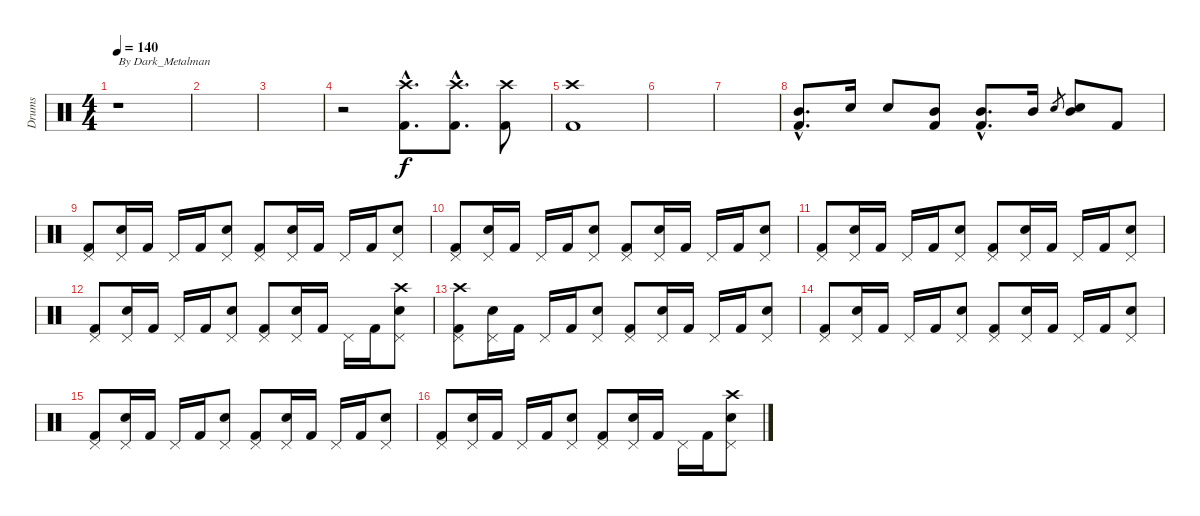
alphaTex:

\track ("Drums" "Drums") {instrument percussion}
\staff {score}
\articulation defaults
\ts (4 4)
\tempo 140
\clef neutral
\ks c
r.1{txt "By Dark_Metalman" dy f} |
|
|
r.2 ("Crash high (hit)"{hac} "Kick (hit) 2"{hac}).8{d} ("Crash high (hit)"{hac} "Kick (hit) 2"{hac}).8{d} ("Crash high (hit)" "Kick (hit) 2").8 |
("Crash high (hit)" "Kick (hit) 2").1 |
|
|
("Mid Tom (hit)"{hac} "Kick (hit) 2"{hac}).8{d} "Electric Snare (hit)".16 "Electric Snare (hit)".8 ("Mid Tom (hit)" "Kick (hit) 2").8 ("Mid Tom (hit)"{hac} "Kick (hit) 2"{hac}).8{d} "Mid Tom (hit)".16 "Electric Snare (hit)".8{gr} ("Electric Snare (hit)" "Mid Tom (hit)").8 "Kick (hit) 2".8 |
("Pedal Hi-Hat (hit)" "Kick (hit) 2").8 ("Pedal Hi-Hat (hit)" "Electric Snare (hit)").16 "Kick (hit) 2".16 "Pedal Hi-Hat (hit)".16 "Kick (hit) 2".16 ("Pedal Hi-Hat (hit)" "Electric Snare (hit)").8 ("Pedal Hi-Hat (hit)" "Kick (hit) 2").8 ("Pedal Hi-Hat (hit)" "Electric Snare (hit)").16 "Kick (hit) 2".16 "Pedal Hi-Hat (hit)".16 "Kick (hit) 2".16 ("Pedal Hi-Hat (hit)" "Electric Snare (hit)").8 |
("Pedal Hi-Hat (hit)" "Kick (hit) 2").8 ("Pedal Hi-Hat (hit)" "Electric Snare (hit)").16 "Kick (hit) 2".16 "Pedal Hi-Hat (hit)".16 "Kick (hit) 2".16 ("Pedal Hi-Hat (hit)" "Electric Snare (hit)").8 ("Pedal Hi-Hat (hit)" "Kick (hit) 2").8 ("Pedal Hi-Hat (hit)" "Electric Snare (hit)").16 "Kick (hit) 2".16 "Pedal Hi-Hat (hit)".16 "Kick (hit) 2".16 ("Pedal Hi-Hat (hit)" "Electric Snare (hit)").8 |
("Pedal Hi-Hat (hit)" "Kick (hit) 2").8 ("Pedal Hi-Hat (hit)" "Electric Snare (hit)").16 "Kick (hit) 2".16 "Pedal Hi-Hat (hit)".16 "Kick (hit) 2".16 ("Pedal Hi-Hat (hit)" "Electric Snare (hit)").8 ("Pedal Hi-Hat (hit)" "Kick (hit) 2").8 ("Pedal Hi-Hat (hit)" "Electric Snare (hit)").16 "Kick (hit) 2".16 "Pedal Hi-Hat (hit)".16 "Kick (hit) 2".16 ("Pedal Hi-Hat (hit)" "Electric Snare (hit)").8 |
("Pedal Hi-Hat (hit)" "Kick (hit) 2").8 ("Pedal Hi-Hat (hit)" "Electric Snare (hit)").16 "Kick (hit) 2".16 "Pedal Hi-Hat (hit)".16 "Kick (hit) 2".16 ("Pedal Hi-Hat (hit)" "Electric Snare (hit)").8 ("Pedal Hi-Hat (hit)" "Kick (hit) 2").8 ("Pedal Hi-Hat (hit)" "Electric Snare (hit)").16 "Kick (hit) 2".16 "Pedal Hi-Hat (hit)".16 "Kick (hit) 2".16 ("Pedal Hi-Hat (hit)" "Electric Snare (hit)" "Crash high (hit)").8 |
("Pedal Hi-Hat (hit)" "Crash high (hit)" "Kick (hit) 2").8 ("Pedal Hi-Hat (hit)" "Electric Snare (hit)").16 "Kick (hit) 2".16 "Pedal Hi-Hat (hit)".16 "Kick (hit) 2".16 ("Pedal Hi-Hat (hit)" "Electric Snare (hit)").8 ("Pedal Hi-Hat (hit)" "Kick (hit) 2").8 ("Pedal Hi-Hat (hit)" "Electric Snare (hit)").16 "Kick (hit) 2".16 "Pedal Hi-Hat (hit)".16 "Kick (hit) 2".16 ("Pedal Hi-Hat (hit)" "Electric Snare (hit)").8 |
("Pedal Hi-Hat (hit)" "Kick (hit) 2").8 ("Pedal Hi-Hat (hit)" "Electric Snare (hit)").16 "Kick (hit) 2".16 "Pedal Hi-Hat (hit)".16 "Kick (hit) 2".16 ("Pedal Hi-Hat (hit)" "Electric Snare (hit)").8 ("Pedal Hi-Hat (hit)" "Kick (hit) 2").8 ("Pedal Hi-Hat (hit)" "Electric Snare (hit)").16 "Kick (hit) 2".16 "Pedal Hi-Hat (hit)".16 "Kick (hit) 2".16 ("Pedal Hi-Hat (hit)" "Electric Snare (hit)").8 |
("Pedal Hi-Hat (hit)" "Kick (hit) 2").8 ("Pedal Hi-Hat (hit)" "Electric Snare (hit)").16 "Kick (hit) 2".16 "Pedal Hi-Hat (hit)".16 "Kick (hit) 2".16 ("Pedal Hi-Hat (hit)" "Electric Snare (hit)").8 ("Pedal Hi-Hat (hit)" "Kick (hit) 2").8 ("Pedal Hi-Hat (hit)" "Electric Snare (hit)").16 "Kick (hit) 2".16 "Pedal Hi-Hat (hit)".16 "Kick (hit) 2".16 ("Pedal Hi-Hat (hit)" "Electric Snare (hit)").8 |
("Pedal Hi-Hat (hit)" "Kick (hit) 2").8 ("Pedal Hi-Hat (hit)" "Electric Snare (hit)").16 "Kick (hit) 2".16 "Pedal Hi-Hat (hit)".16 "Kick (hit) 2".16 ("Pedal Hi-Hat (hit)" "Electric Snare (hit)").8 ("Pedal Hi-Hat (hit)" "Kick (hit) 2").8 ("Pedal Hi-Hat (hit)" "Electric Snare (hit)").16 "Kick (hit) 2".16 "Pedal Hi-Hat (hit)".16 "Kick (hit) 2".16 ("Pedal Hi-Hat (hit)" "Electric Snare (hit)" "Crash high (hit)").8
